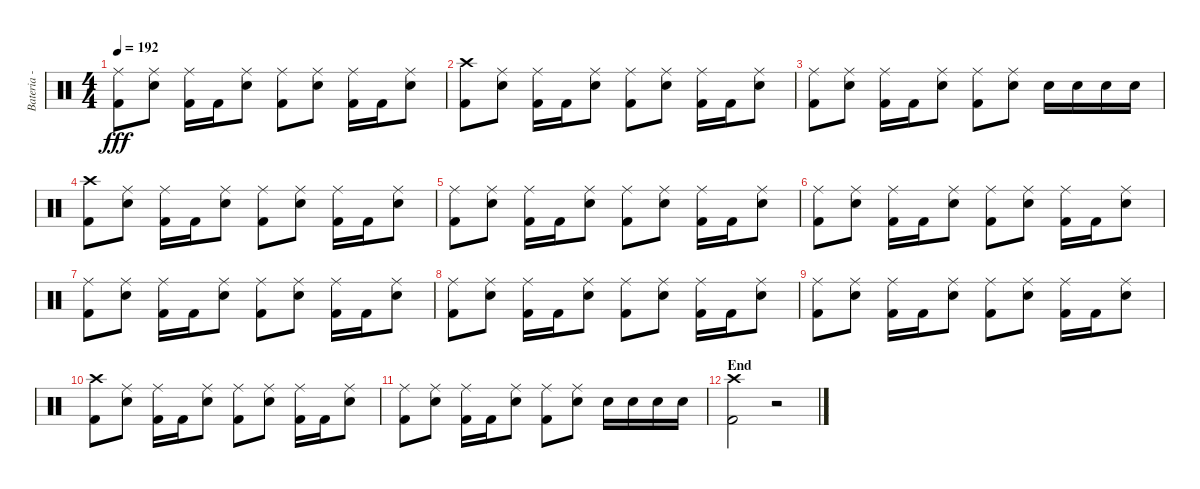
\track ("Bateria - Larzon" "Bateria - ") {instrument percussion}
\staff {score}
\articulation defaults
\ts (4 4)
\tempo 192
\clef neutral
\ks c
("Kick (hit) 2" "Ride (middle)").8{dy fff} ("Electric Snare (hit)" "Ride (middle)").8 ("Kick (hit) 2" "Ride (middle)").16 "Kick (hit) 2".16 ("Electric Snare (hit)" "Ride (middle)").8 ("Kick (hit) 2" "Ride (middle)").8 ("Electric Snare (hit)" "Ride (middle)").8 ("Kick (hit) 2" "Ride (middle)").16 "Kick (hit) 2".16 ("Electric Snare (hit)" "Ride (middle)").8 |
("Kick (hit) 2" "Crash high (hit)").8 ("Electric Snare (hit)" "Ride (middle)").8 ("Kick (hit) 2" "Ride (middle)").16 "Kick (hit) 2".16 ("Electric Snare (hit)" "Ride (middle)").8 ("Kick (hit) 2" "Ride (middle)").8 ("Electric Snare (hit)" "Ride (middle)").8 ("Kick (hit) 2" "Ride (middle)").16 "Kick (hit) 2".16 ("Electric Snare (hit)" "Ride (middle)").8 |
("Kick (hit) 2" "Ride (middle)").8 ("Electric Snare (hit)" "Ride (middle)").8 ("Kick (hit) 2" "Ride (middle)").16 "Kick (hit) 2".16 ("Electric Snare (hit)" "Ride (middle)").8 ("Kick (hit) 2" "Ride (middle)").8 ("Electric Snare (hit)" "Ride (middle)").8 "Electric Snare (hit)".16 "Electric Snare (hit)".16 "Electric Snare (hit)".16 "Electric Snare (hit)".16 |
("Kick (hit) 2" "Crash high (hit)").8 ("Electric Snare (hit)" "Ride (middle)").8 ("Kick (hit) 2" "Ride (middle)").16 "Kick (hit) 2".16 ("Electric Snare (hit)" "Ride (middle)").8 ("Kick (hit) 2" "Ride (middle)").8 ("Electric Snare (hit)" "Ride (middle)").8 ("Kick (hit) 2" "Ride (middle)").16 "Kick (hit) 2".16 ("Electric Snare (hit)" "Ride (middle)").8 |
("Kick (hit) 2" "Ride (middle)").8 ("Electric Snare (hit)" "Ride (middle)").8 ("Kick (hit) 2" "Ride (middle)").16 "Kick (hit) 2".16 ("Electric Snare (hit)" "Ride (middle)").8 ("Kick (hit) 2" "Ride (middle)").8 ("Electric Snare (hit)" "Ride (middle)").8 ("Kick (hit) 2" "Ride (middle)").16 "Kick (hit) 2".16 ("Electric Snare (hit)" "Ride (middle)").8 |
("Kick (hit) 2" "Ride (middle)").8 ("Electric Snare (hit)" "Ride (middle)").8 ("Kick (hit) 2" "Ride (middle)").16 "Kick (hit) 2".16 ("Electric Snare (hit)" "Ride (middle)").8 ("Kick (hit) 2" "Ride (middle)").8 ("Electric Snare (hit)" "Ride (middle)").8 ("Kick (hit) 2" "Ride (middle)").16 "Kick (hit) 2".16 ("Electric Snare (hit)" "Ride (middle)").8 |
("Kick (hit) 2" "Ride (middle)").8 ("Electric Snare (hit)" "Ride (middle)").8 ("Kick (hit) 2" "Ride (middle)").16 "Kick (hit) 2".16 ("Electric Snare (hit)" "Ride (middle)").8 ("Kick (hit) 2" "Ride (middle)").8 ("Electric Snare (hit)" "Ride (middle)").8 ("Kick (hit) 2" "Ride (middle)").16 "Kick (hit) 2".16 ("Electric Snare (hit)" "Ride (middle)").8 |
("Kick (hit) 2" "Ride (middle)").8 ("Electric Snare (hit)" "Ride (middle)").8 ("Kick (hit) 2" "Ride (middle)").16 "Kick (hit) 2".16 ("Electric Snare (hit)" "Ride (middle)").8 ("Kick (hit) 2" "Ride (middle)").8 ("Electric Snare (hit)" "Ride (middle)").8 ("Kick (hit) 2" "Ride (middle)").16 "Kick (hit) 2".16 ("Electric Snare (hit)" "Ride (middle)").8 |
("Kick (hit) 2" "Ride (middle)").8 ("Electric Snare (hit)" "Ride (middle)").8 ("Kick (hit) 2" "Ride (middle)").16 "Kick (hit) 2".16 ("Electric Snare (hit)" "Ride (middle)").8 ("Kick (hit) 2" "Ride (middle)").8 ("Electric Snare (hit)" "Ride (middle)").8 ("Kick (hit) 2" "Ride (middle)").16 "Kick (hit) 2".16 ("Electric Snare (hit)" "Ride (middle)").8 |
("Kick (hit) 2" "Crash high (hit)").8 ("Electric Snare (hit)" "Ride (middle)").8 ("Kick (hit) 2" "Ride (middle)").16 "Kick (hit) 2".16 ("Electric Snare (hit)" "Ride (middle)").8 ("Kick (hit) 2" "Ride (middle)").8 ("Electric Snare (hit)" "Ride (middle)").8 ("Kick (hit) 2" "Ride (middle)").16 "Kick (hit) 2".16 ("Electric Snare (hit)" "Ride (middle)").8 |
("Kick (hit) 2" "Ride (middle)").8 ("Electric Snare (hit)" "Ride (middle)").8 ("Kick (hit) 2" "Ride (middle)").16 "Kick (hit) 2".16 ("Electric Snare (hit)" "Ride (middle)").8 ("Kick (hit) 2" "Ride (middle)").8 ("Electric Snare (hit)" "Ride (middle)").8 "Electric Snare (hit)".16 "Electric Snare (hit)".16 "Electric Snare (hit)".16 "Electric Snare (hit)".16 |
\section ("" "End")
("Kick (hit) 2" "Crash high (hit)").2 r.2
